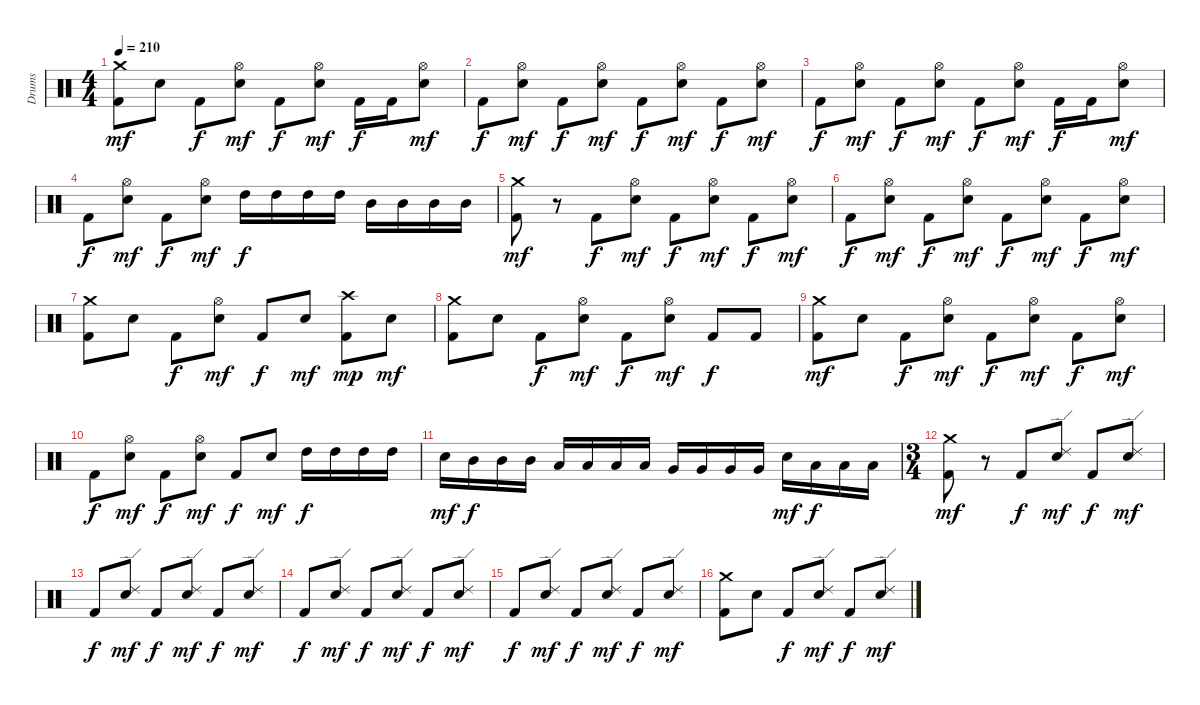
\track ("Drums" "Drums") {instrument percussion}
\staff {score}
\articulation defaults
\ts (4 4)
\tempo 210
\clef neutral
\ks c
("Crash medium (hit)" "Kick (hit) 2").8{dy mf} "Electric Snare (hit)".8 "Kick (hit) 2".8{dy f} ("Hi-Hat (open)" "Electric Snare (hit)").8{dy mf} "Kick (hit) 2".8{dy f} ("Hi-Hat (open)" "Electric Snare (hit)").8{dy mf} "Kick (hit) 2".16{dy f} "Kick (hit) 2".16 ("Hi-Hat (open)" "Electric Snare (hit)").8{dy mf} |
"Kick (hit) 2".8{dy f} ("Hi-Hat (open)" "Electric Snare (hit)").8{dy mf} "Kick (hit) 2".8{dy f} ("Hi-Hat (open)" "Electric Snare (hit)").8{dy mf} "Kick (hit) 2".8{dy f} ("Hi-Hat (open)" "Electric Snare (hit)").8{dy mf} "Kick (hit) 2".8{dy f} ("Hi-Hat (open)" "Electric Snare (hit)").8{dy mf} |
"Kick (hit) 2".8{dy f} ("Hi-Hat (open)" "Electric Snare (hit)").8{dy mf} "Kick (hit) 2".8{dy f} ("Hi-Hat (open)" "Electric Snare (hit)").8{dy mf} "Kick (hit) 2".8{dy f} ("Hi-Hat (open)" "Electric Snare (hit)").8{dy mf} "Kick (hit) 2".16{dy f} "Kick (hit) 2".16 ("Hi-Hat (open)" "Electric Snare (hit)").8{dy mf} |
"Kick (hit) 2".8{dy f} ("Hi-Hat (open)" "Electric Snare (hit)").8{dy mf} "Kick (hit) 2".8{dy f} ("Hi-Hat (open)" "Electric Snare (hit)").8{dy mf} "High Tom (hit)".16{dy f} "High Tom (hit)".16 "High Tom (hit)".16 "High Tom (hit)".16 "Mid Tom (hit)".16 "Mid Tom (hit)".16 "Mid Tom (hit)".16 "Mid Tom (hit)".16 |
("Crash medium (hit)" "Kick (hit) 2").8{dy mf} r.8 "Kick (hit) 2".8{dy f} ("Hi-Hat (open)" "Electric Snare (hit)").8{dy mf} "Kick (hit) 2".8{dy f} ("Hi-Hat (open)" "Electric Snare (hit)").8{dy mf} "Kick (hit) 2".8{dy f} ("Hi-Hat (open)" "Electric Snare (hit)").8{dy mf} |
"Kick (hit) 2".8{dy f} ("Hi-Hat (open)" "Electric Snare (hit)").8{dy mf} "Kick (hit) 2".8{dy f} ("Hi-Hat (open)" "Electric Snare (hit)").8{dy mf} "Kick (hit) 2".8{dy f} ("Hi-Hat (open)" "Electric Snare (hit)").8{dy mf} "Kick (hit) 2".8{dy f} ("Hi-Hat (open)" "Electric Snare (hit)").8{dy mf} |
("Crash medium (hit)" "Kick (hit) 2").8 "Electric Snare (hit)".8 "Kick (hit) 2".8{dy f} ("Hi-Hat (open)" "Electric Snare (hit)").8{dy mf} "Kick (hit) 2".8{dy f} "Electric Snare (hit)".8{dy mf} ("Crash high (hit)" "Kick (hit) 2").8{dy mp} "Electric Snare (hit)".8{dy mf} |
("Crash medium (hit)" "Kick (hit) 2").8 "Electric Snare (hit)".8 "Kick (hit) 2".8{dy f} ("Hi-Hat (open)" "Electric Snare (hit)").8{dy mf} "Kick (hit) 2".8{dy f} ("Hi-Hat (open)" "Electric Snare (hit)").8{dy mf} "Kick (hit) 2".8{dy f} "Kick (hit) 2".8 |
("Crash medium (hit)" "Kick (hit) 2").8{dy mf} "Electric Snare (hit)".8 "Kick (hit) 2".8{dy f} ("Hi-Hat (open)" "Electric Snare (hit)").8{dy mf} "Kick (hit) 2".8{dy f} ("Hi-Hat (open)" "Electric Snare (hit)").8{dy mf} "Kick (hit) 2".8{dy f} ("Hi-Hat (open)" "Electric Snare (hit)").8{dy mf} |
"Kick (hit) 2".8{dy f} ("Hi-Hat (open)" "Electric Snare (hit)").8{dy mf} "Kick (hit) 2".8{dy f} ("Hi-Hat (open)" "Electric Snare (hit)").8{dy mf} "Kick (hit) 2".8{dy f} "Electric Snare (hit)".8{dy mf} "High Tom (hit)".16{dy f} "High Tom (hit)".16 "High Tom (hit)".16 "High Tom (hit)".16 |
"Electric Snare (hit)".16{dy mf} "Mid Tom (hit)".16{dy f} "Mid Tom (hit)".16 "Mid Tom (hit)".16 "Low Tom (hit)".16 "Low Tom (hit)".16 "Low Tom (hit)".16 "Low Tom (hit)".16 "Very Low Tom (hit)".16 "Very Low Tom (hit)".16 "Very Low Tom (hit)".16 "Very Low Tom (hit)".16 "Electric Snare (hit)".16{dy mf} "Low Tom (hit)".16{dy f} "Low Tom (hit)".16 "Low Tom (hit)".16 |
\ts (3 4)
("Crash medium (hit)" "Kick (hit) 2").8{dy mf} r.8 "Kick (hit) 2".8{dy f} ("Ride (edge) 2" "Electric Snare (hit)").8{dy mf} "Kick (hit) 2".8{dy f} ("Ride (edge) 2" "Electric Snare (hit)").8{dy mf} |
"Kick (hit) 2".8{dy f} ("Ride (edge) 2" "Electric Snare (hit)").8{dy mf} "Kick (hit) 2".8{dy f} ("Ride (edge) 2" "Electric Snare (hit)").8{dy mf} "Kick (hit) 2".8{dy f} ("Ride (edge) 2" "Electric Snare (hit)").8{dy mf} |
"Kick (hit) 2".8{dy f} ("Ride (edge) 2" "Electric Snare (hit)").8{dy mf} "Kick (hit) 2".8{dy f} ("Ride (edge) 2" "Electric Snare (hit)").8{dy mf} "Kick (hit) 2".8{dy f} ("Ride (edge) 2" "Electric Snare (hit)").8{dy mf} |
"Kick (hit) 2".8{dy f} ("Ride (edge) 2" "Electric Snare (hit)").8{dy mf} "Kick (hit) 2".8{dy f} ("Ride (edge) 2" "Electric Snare (hit)").8{dy mf} "Kick (hit) 2".8{dy f} ("Ride (edge) 2" "Electric Snare (hit)").8{dy mf} |
("Crash medium (hit)" "Kick (hit) 2").8 "Electric Snare (hit)".8 "Kick (hit) 2".8{dy f} ("Ride (edge) 2" "Electric Snare (hit)").8{dy mf} "Kick (hit) 2".8{dy f} ("Ride (edge) 2" "Electric Snare (hit)").8{dy mf}
